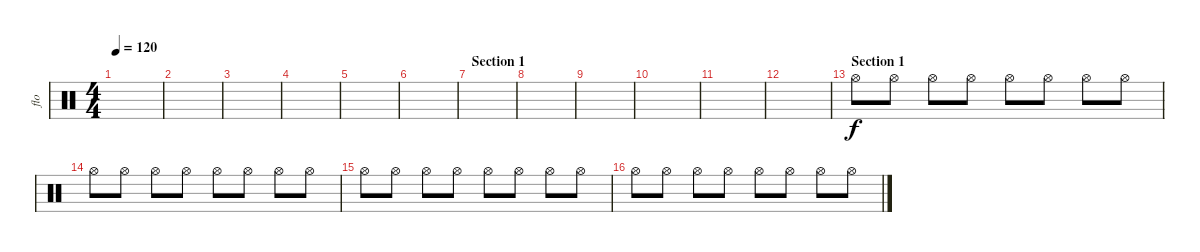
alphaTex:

\track ("flo" "flo") {instrument percussion}
\staff {score}
\articulation defaults
\ts (4 4)
\tempo 120
\clef neutral
\ks c
|
|
|
|
|
|
\section ("" "Section 1")
|
|
|
|
|
|
\section ("" "Section 1")
"Hi-Hat (open)".8 "Hi-Hat (open)".8 "Hi-Hat (open)".8 "Hi-Hat (open)".8 "Hi-Hat (open)".8 "Hi-Hat (open)".8 "Hi-Hat (open)".8 "Hi-Hat (open)".8 |
"Hi-Hat (open)".8 "Hi-Hat (open)".8 "Hi-Hat (open)".8 "Hi-Hat (open)".8 "Hi-Hat (open)".8 "Hi-Hat (open)".8 "Hi-Hat (open)".8 "Hi-Hat (open)".8 |
"Hi-Hat (open)".8 "Hi-Hat (open)".8 "Hi-Hat (open)".8 "Hi-Hat (open)".8 "Hi-Hat (open)".8 "Hi-Hat (open)".8 "Hi-Hat (open)".8 "Hi-Hat (open)".8 |
"Hi-Hat (open)".8 "Hi-Hat (open)".8 "Hi-Hat (open)".8 "Hi-Hat (open)".8 "Hi-Hat (open)".8 "Hi-Hat (open)".8 "Hi-Hat (open)".8 "Hi-Hat (open)".8
